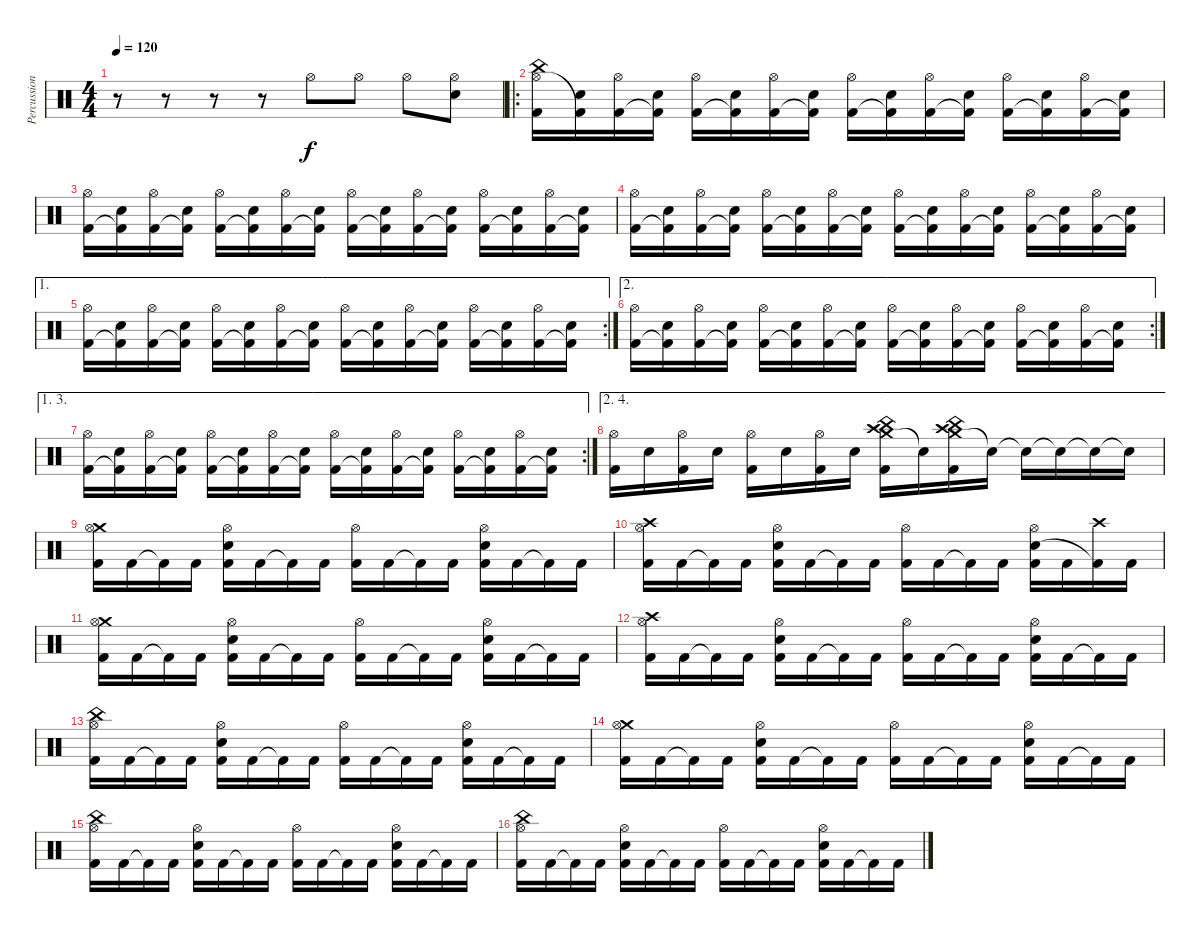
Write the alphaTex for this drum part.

\track ("Percussion" "Percussion") {instrument percussion}
\staff {score}
\articulation defaults
\ts (4 4)
\tempo 120
\clef neutral
\ks c
r.8{dy f} r.8 r.8 r.8 "Hi-Hat (open)".8 "Hi-Hat (open)".8 "Hi-Hat (open)".8 ("Hi-Hat (open)" "Electric Snare (hit)").8 |
\ro
("China (hit)" "Hi-Hat (open)" "Kick (hit) 2").16 ("Electric Snare (hit)" "Kick (hit) 2"{t}).16 ("Hi-Hat (open)" "Kick (hit) 2").16 ("Electric Snare (hit)" "Kick (hit) 2"{t}).16 ("Hi-Hat (open)" "Kick (hit) 2").16 ("Electric Snare (hit)" "Kick (hit) 2"{t}).16 ("Hi-Hat (open)" "Kick (hit) 2").16 ("Electric Snare (hit)" "Kick (hit) 2"{t}).16 ("Hi-Hat (open)" "Kick (hit) 2").16 ("Electric Snare (hit)" "Kick (hit) 2"{t}).16 ("Hi-Hat (open)" "Kick (hit) 2").16 ("Electric Snare (hit)" "Kick (hit) 2"{t}).16 ("Hi-Hat (open)" "Kick (hit) 2").16 ("Electric Snare (hit)" "Kick (hit) 2"{t}).16 ("Hi-Hat (open)" "Kick (hit) 2").16 ("Electric Snare (hit)" "Kick (hit) 2"{t}).16 |
("Hi-Hat (open)" "Kick (hit) 2").16 ("Electric Snare (hit)" "Kick (hit) 2"{t}).16 ("Hi-Hat (open)" "Kick (hit) 2").16 ("Electric Snare (hit)" "Kick (hit) 2"{t}).16 ("Hi-Hat (open)" "Kick (hit) 2").16 ("Electric Snare (hit)" "Kick (hit) 2"{t}).16 ("Hi-Hat (open)" "Kick (hit) 2").16 ("Electric Snare (hit)" "Kick (hit) 2"{t}).16 ("Hi-Hat (open)" "Kick (hit) 2").16 ("Electric Snare (hit)" "Kick (hit) 2"{t}).16 ("Hi-Hat (open)" "Kick (hit) 2").16 ("Electric Snare (hit)" "Kick (hit) 2"{t}).16 ("Hi-Hat (open)" "Kick (hit) 2").16 ("Electric Snare (hit)" "Kick (hit) 2"{t}).16 ("Hi-Hat (open)" "Kick (hit) 2").16 ("Electric Snare (hit)" "Kick (hit) 2"{t}).16 |
("Hi-Hat (open)" "Kick (hit) 2").16 ("Electric Snare (hit)" "Kick (hit) 2"{t}).16 ("Hi-Hat (open)" "Kick (hit) 2").16 ("Electric Snare (hit)" "Kick (hit) 2"{t}).16 ("Hi-Hat (open)" "Kick (hit) 2").16 ("Electric Snare (hit)" "Kick (hit) 2"{t}).16 ("Hi-Hat (open)" "Kick (hit) 2").16 ("Electric Snare (hit)" "Kick (hit) 2"{t}).16 ("Hi-Hat (open)" "Kick (hit) 2").16 ("Electric Snare (hit)" "Kick (hit) 2"{t}).16 ("Hi-Hat (open)" "Kick (hit) 2").16 ("Electric Snare (hit)" "Kick (hit) 2"{t}).16 ("Hi-Hat (open)" "Kick (hit) 2").16 ("Electric Snare (hit)" "Kick (hit) 2"{t}).16 ("Hi-Hat (open)" "Kick (hit) 2").16 ("Electric Snare (hit)" "Kick (hit) 2"{t}).16 |
\ae 1
\rc 2
("Hi-Hat (open)" "Kick (hit) 2").16 ("Electric Snare (hit)" "Kick (hit) 2"{t}).16 ("Hi-Hat (open)" "Kick (hit) 2").16 ("Electric Snare (hit)" "Kick (hit) 2"{t}).16 ("Hi-Hat (open)" "Kick (hit) 2").16 ("Electric Snare (hit)" "Kick (hit) 2"{t}).16 ("Hi-Hat (open)" "Kick (hit) 2").16 ("Electric Snare (hit)" "Kick (hit) 2"{t}).16 ("Hi-Hat (open)" "Kick (hit) 2").16 ("Electric Snare (hit)" "Kick (hit) 2"{t}).16 ("Hi-Hat (open)" "Kick (hit) 2").16 ("Electric Snare (hit)" "Kick (hit) 2"{t}).16 ("Hi-Hat (open)" "Kick (hit) 2").16 ("Electric Snare (hit)" "Kick (hit) 2"{t}).16 ("Hi-Hat (open)" "Kick (hit) 2").16 ("Electric Snare (hit)" "Kick (hit) 2"{t}).16 |
\ae 2
\rc 2
("Hi-Hat (open)" "Kick (hit) 2").16 ("Electric Snare (hit)" "Kick (hit) 2"{t}).16 ("Hi-Hat (open)" "Kick (hit) 2").16 ("Electric Snare (hit)" "Kick (hit) 2"{t}).16 ("Hi-Hat (open)" "Kick (hit) 2").16 ("Electric Snare (hit)" "Kick (hit) 2"{t}).16 ("Hi-Hat (open)" "Kick (hit) 2").16 ("Electric Snare (hit)" "Kick (hit) 2"{t}).16 ("Hi-Hat (open)" "Kick (hit) 2").16 ("Electric Snare (hit)" "Kick (hit) 2"{t}).16 ("Hi-Hat (open)" "Kick (hit) 2").16 ("Electric Snare (hit)" "Kick (hit) 2"{t}).16 ("Hi-Hat (open)" "Kick (hit) 2").16 ("Electric Snare (hit)" "Kick (hit) 2"{t}).16 ("Hi-Hat (open)" "Kick (hit) 2").16 ("Electric Snare (hit)" "Kick (hit) 2"{t}).16 |
\ae (1 3)
\rc 2
("Hi-Hat (open)" "Kick (hit) 2").16 ("Electric Snare (hit)" "Kick (hit) 2"{t}).16 ("Hi-Hat (open)" "Kick (hit) 2").16 ("Electric Snare (hit)" "Kick (hit) 2"{t}).16 ("Hi-Hat (open)" "Kick (hit) 2").16 ("Electric Snare (hit)" "Kick (hit) 2"{t}).16 ("Hi-Hat (open)" "Kick (hit) 2").16 ("Electric Snare (hit)" "Kick (hit) 2"{t}).16 ("Hi-Hat (open)" "Kick (hit) 2").16 ("Electric Snare (hit)" "Kick (hit) 2"{t}).16 ("Hi-Hat (open)" "Kick (hit) 2").16 ("Electric Snare (hit)" "Kick (hit) 2"{t}).16 ("Hi-Hat (open)" "Kick (hit) 2").16 ("Electric Snare (hit)" "Kick (hit) 2"{t}).16 ("Hi-Hat (open)" "Kick (hit) 2").16 ("Electric Snare (hit)" "Kick (hit) 2"{t}).16 |
\ae (2 4)
("Hi-Hat (open)" "Kick (hit) 2").16 "Electric Snare (hit)".16 ("Hi-Hat (open)" "Kick (hit) 2").16 "Electric Snare (hit)".16 ("Hi-Hat (open)" "Kick (hit) 2").16 "Electric Snare (hit)".16 ("Hi-Hat (open)" "Kick (hit) 2").16 "Electric Snare (hit)".16 ("Crash medium (hit)" "Crash high (hit)" "China (hit)" "Kick (hit) 2").16 "Snare (hit)"{t}.16 ("Crash medium (hit)" "Crash high (hit)" "China (hit)" "Kick (hit) 2").16 "Snare (hit)"{t}.16 "Snare (hit)"{t}.16 "Snare (hit)"{t}.16 "Snare (hit)"{t}.16 "Snare (hit)"{t}.16 |
("Crash medium (hit)" "Hi-Hat (open)" "Kick (hit) 2").16 "Kick (hit) 2".16 "Kick (hit) 2"{t}.16 "Kick (hit) 2".16 ("Hi-Hat (open)" "Electric Snare (hit)" "Kick (hit) 2").16 "Kick (hit) 2".16 "Kick (hit) 2"{t}.16 "Kick (hit) 2".16 ("Hi-Hat (open)" "Kick (hit) 2").16 "Kick (hit) 2".16 "Kick (hit) 2"{t}.16 "Kick (hit) 2".16 ("Hi-Hat (open)" "Electric Snare (hit)" "Kick (hit) 2").16 "Kick (hit) 2".16 "Kick (hit) 2"{t}.16 "Kick (hit) 2".16 |
("Crash high (hit)" "Hi-Hat (open)" "Kick (hit) 2").16 "Kick (hit) 2".16 "Kick (hit) 2"{t}.16 "Kick (hit) 2".16 ("Hi-Hat (open)" "Electric Snare (hit)" "Kick (hit) 2").16 "Kick (hit) 2".16 "Kick (hit) 2"{t}.16 "Kick (hit) 2".16 ("Hi-Hat (open)" "Kick (hit) 2").16 "Kick (hit) 2".16 "Kick (hit) 2"{t}.16 "Kick (hit) 2".16 ("Hi-Hat (open)" "Electric Snare (hit)" "Kick (hit) 2").16 "Kick (hit) 2".16 ("Crash high (hit)" "Kick (hit) 2"{t}).16 "Kick (hit) 2".16 |
("Crash medium (hit)" "Hi-Hat (open)" "Kick (hit) 2").16 "Kick (hit) 2".16 "Kick (hit) 2"{t}.16 "Kick (hit) 2".16 ("Hi-Hat (open)" "Electric Snare (hit)" "Kick (hit) 2").16 "Kick (hit) 2".16 "Kick (hit) 2"{t}.16 "Kick (hit) 2".16 ("Hi-Hat (open)" "Kick (hit) 2").16 "Kick (hit) 2".16 "Kick (hit) 2"{t}.16 "Kick (hit) 2".16 ("Hi-Hat (open)" "Electric Snare (hit)" "Kick (hit) 2").16 "Kick (hit) 2".16 "Kick (hit) 2"{t}.16 "Kick (hit) 2".16 |
("Crash high (hit)" "Hi-Hat (open)" "Kick (hit) 2").16 "Kick (hit) 2".16 "Kick (hit) 2"{t}.16 "Kick (hit) 2".16 ("Hi-Hat (open)" "Electric Snare (hit)" "Kick (hit) 2").16 "Kick (hit) 2".16 "Kick (hit) 2"{t}.16 "Kick (hit) 2".16 ("Hi-Hat (open)" "Kick (hit) 2").16 "Kick (hit) 2".16 "Kick (hit) 2"{t}.16 "Kick (hit) 2".16 ("Hi-Hat (open)" "Electric Snare (hit)" "Kick (hit) 2").16 "Kick (hit) 2".16 "Kick (hit) 2"{t}.16 "Kick (hit) 2".16 |
("China (hit)" "Hi-Hat (open)" "Kick (hit) 2").16 "Kick (hit) 2".16 "Kick (hit) 2"{t}.16 "Kick (hit) 2".16 ("Hi-Hat (open)" "Electric Snare (hit)" "Kick (hit) 2").16 "Kick (hit) 2".16 "Kick (hit) 2"{t}.16 "Kick (hit) 2".16 ("Hi-Hat (open)" "Kick (hit) 2").16 "Kick (hit) 2".16 "Kick (hit) 2"{t}.16 "Kick (hit) 2".16 ("Hi-Hat (open)" "Electric Snare (hit)" "Kick (hit) 2").16 "Kick (hit) 2".16 "Kick (hit) 2"{t}.16 "Kick (hit) 2".16 |
("Crash medium (hit)" "Hi-Hat (open)" "Kick (hit) 2").16 "Kick (hit) 2".16 "Kick (hit) 2"{t}.16 "Kick (hit) 2".16 ("Hi-Hat (open)" "Electric Snare (hit)" "Kick (hit) 2").16 "Kick (hit) 2".16 "Kick (hit) 2"{t}.16 "Kick (hit) 2".16 ("Hi-Hat (open)" "Kick (hit) 2").16 "Kick (hit) 2".16 "Kick (hit) 2"{t}.16 "Kick (hit) 2".16 ("Hi-Hat (open)" "Electric Snare (hit)" "Kick (hit) 2").16 "Kick (hit) 2".16 "Kick (hit) 2"{t}.16 "Kick (hit) 2".16 |
("China (hit)" "Hi-Hat (open)" "Kick (hit) 2").16 "Kick (hit) 2".16 "Kick (hit) 2"{t}.16 "Kick (hit) 2".16 ("Hi-Hat (open)" "Electric Snare (hit)" "Kick (hit) 2").16 "Kick (hit) 2".16 "Kick (hit) 2"{t}.16 "Kick (hit) 2".16 ("Hi-Hat (open)" "Kick (hit) 2").16 "Kick (hit) 2".16 "Kick (hit) 2"{t}.16 "Kick (hit) 2".16 ("Hi-Hat (open)" "Electric Snare (hit)" "Kick (hit) 2").16 "Kick (hit) 2".16 "Kick (hit) 2"{t}.16 "Kick (hit) 2".16 |
("China (hit)" "Hi-Hat (open)" "Kick (hit) 2").16 "Kick (hit) 2".16 "Kick (hit) 2"{t}.16 "Kick (hit) 2".16 ("Hi-Hat (open)" "Electric Snare (hit)" "Kick (hit) 2").16 "Kick (hit) 2".16 "Kick (hit) 2"{t}.16 "Kick (hit) 2".16 ("Hi-Hat (open)" "Kick (hit) 2").16 "Kick (hit) 2".16 "Kick (hit) 2"{t}.16 "Kick (hit) 2".16 ("Hi-Hat (open)" "Electric Snare (hit)" "Kick (hit) 2").16 "Kick (hit) 2".16 "Kick (hit) 2"{t}.16 "Kick (hit) 2".16
